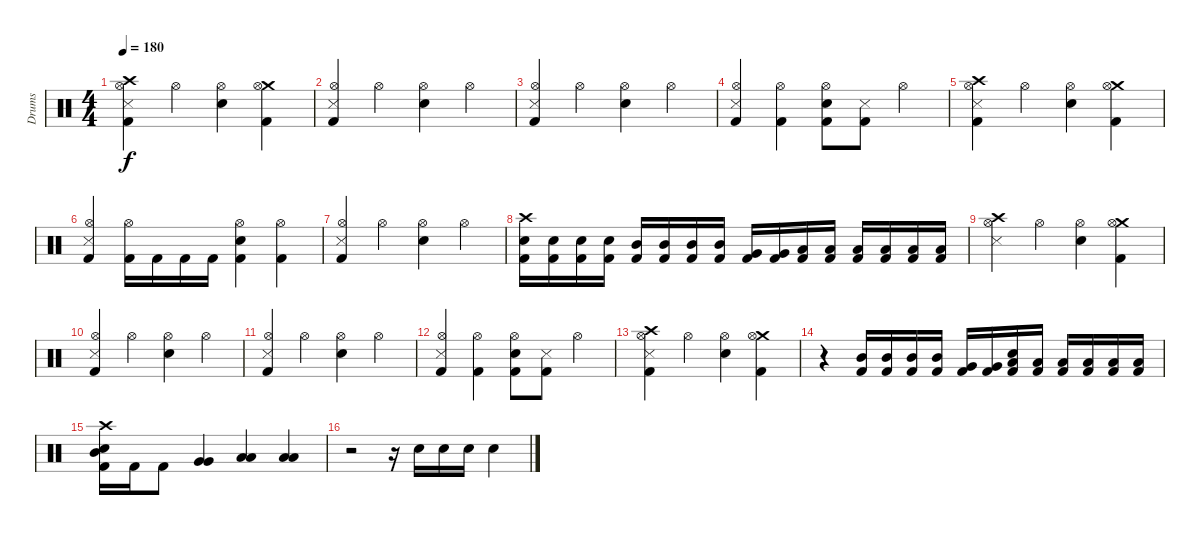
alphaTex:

\track ("Drums" "Drums") {instrument percussion}
\staff {score}
\articulation defaults
\ts (4 4)
\tempo 180
\clef neutral
\ks c
("Crash high (hit)" "Snare (side stick) 3" "Hi-Hat (open)" "Kick (hit) 2").4{dy f} "Hi-Hat (open)".4 ("Hi-Hat (open)" "Electric Snare (hit)").4 ("Crash medium (hit)" "Hi-Hat (open)" "Kick (hit) 2").4 |
("Snare (side stick) 3" "Hi-Hat (open)" "Kick (hit) 2").4 "Hi-Hat (open)".4 ("Hi-Hat (open)" "Electric Snare (hit)").4 "Hi-Hat (open)".4 |
("Snare (side stick) 3" "Hi-Hat (open)" "Kick (hit) 2").4 "Hi-Hat (open)".4 ("Hi-Hat (open)" "Electric Snare (hit)").4 "Hi-Hat (open)".4 |
("Snare (side stick) 3" "Hi-Hat (open)" "Kick (hit) 2").4 ("Hi-Hat (open)" "Kick (hit) 2").4 ("Hi-Hat (open)" "Electric Snare (hit)" "Kick (hit) 2").8 ("Snare (side stick) 3" "Kick (hit) 2").8 "Hi-Hat (open)".4 |
("Crash high (hit)" "Snare (side stick) 3" "Hi-Hat (open)" "Kick (hit) 2").4 "Hi-Hat (open)".4 ("Hi-Hat (open)" "Electric Snare (hit)").4 ("Crash medium (hit)" "Hi-Hat (open)" "Kick (hit) 2").4 |
("Snare (side stick) 3" "Hi-Hat (open)" "Kick (hit) 2").4 ("Hi-Hat (open)" "Kick (hit) 2").16 "Kick (hit) 2".16 "Kick (hit) 2".16 "Kick (hit) 2".16 ("Hi-Hat (open)" "Electric Snare (hit)" "Kick (hit) 2").4 ("Hi-Hat (open)" "Kick (hit) 2").4 |
("Snare (side stick) 3" "Hi-Hat (open)" "Kick (hit) 2").4 "Hi-Hat (open)".4 ("Hi-Hat (open)" "Electric Snare (hit)").4 "Hi-Hat (open)".4 |
("Crash high (hit)" "Electric Snare (hit)" "Kick (hit) 2").16 ("Electric Snare (hit)" "Kick (hit) 2").16 ("Electric Snare (hit)" "Kick (hit) 2").16 ("Electric Snare (hit)" "Kick (hit) 2").16 ("Mid Tom (hit)" "Kick (hit) 2").16 ("Mid Tom (hit)" "Kick (hit) 2").16 ("Mid Tom (hit)" "Kick (hit) 2").16 ("Mid Tom (hit)" "Kick (hit) 2").16 ("Very Low Tom (hit)" "Kick (hit) 2").16 ("Very Low Tom (hit)" "Kick (hit) 2").16 ("Low Tom (hit)" "Kick (hit) 2").16 ("Low Tom (hit)" "Kick (hit) 2").16 ("Low Floor Tom (hit)" "Kick (hit) 2").16 ("Low Floor Tom (hit)" "Kick (hit) 2").16 ("Low Floor Tom (hit)" "Kick (hit) 2").16 ("Low Floor Tom (hit)" "Kick (hit) 2").16 |
("Crash high (hit)" "Snare (side stick) 3" "Hi-Hat (open)").4 "Hi-Hat (open)".4 ("Hi-Hat (open)" "Electric Snare (hit)").4 ("Crash medium (hit)" "Hi-Hat (open)" "Kick (hit) 2").4 |
("Snare (side stick) 3" "Hi-Hat (open)" "Kick (hit) 2").4 "Hi-Hat (open)".4 ("Hi-Hat (open)" "Electric Snare (hit)").4 "Hi-Hat (open)".4 |
("Snare (side stick) 3" "Hi-Hat (open)" "Kick (hit) 2").4 "Hi-Hat (open)".4 ("Hi-Hat (open)" "Electric Snare (hit)").4 "Hi-Hat (open)".4 |
("Snare (side stick) 3" "Hi-Hat (open)" "Kick (hit) 2").4 ("Hi-Hat (open)" "Kick (hit) 2").4 ("Hi-Hat (open)" "Electric Snare (hit)" "Kick (hit) 2").8 ("Snare (side stick) 3" "Kick (hit) 2").8 "Hi-Hat (open)".4 |
("Crash high (hit)" "Snare (side stick) 3" "Hi-Hat (open)" "Kick (hit) 2").4 "Hi-Hat (open)".4 ("Hi-Hat (open)" "Electric Snare (hit)").4 ("Crash medium (hit)" "Hi-Hat (open)" "Kick (hit) 2").4 |
r.4 ("Mid Tom (hit)" "Kick (hit) 2").16 ("Mid Tom (hit)" "Kick (hit) 2").16 ("Mid Tom (hit)" "Kick (hit) 2").16 ("Mid Tom (hit)" "Kick (hit) 2").16 ("Very Low Tom (hit)" "Kick (hit) 2").16 ("Very Low Tom (hit)" "Kick (hit) 2").16 ("Low Tom (hit)" "Electric Snare (hit)" "Kick (hit) 2").16 ("Low Tom (hit)" "Kick (hit) 2").16 ("Low Floor Tom (hit)" "Kick (hit) 2").16 ("Low Floor Tom (hit)" "Kick (hit) 2").16 ("Low Floor Tom (hit)" "Kick (hit) 2").16 ("Low Floor Tom (hit)" "Kick (hit) 2").16 |
("Crash high (hit)" "Mid Tom (hit)" "Electric Snare (hit)" "Kick (hit) 2").16 "Kick (hit) 2".16 "Kick (hit) 2".8 ("Very Low Tom (hit)" "Very Low Tom (hit)").4 ("Low Tom (hit)" "Low Tom (hit)").4 ("Low Floor Tom (hit)" "Low Floor Tom (hit)").4 |
r.2 r.16 "Electric Snare (hit)".16 "Electric Snare (hit)".16 "Electric Snare (hit)".16 "Electric Snare (hit)".4
